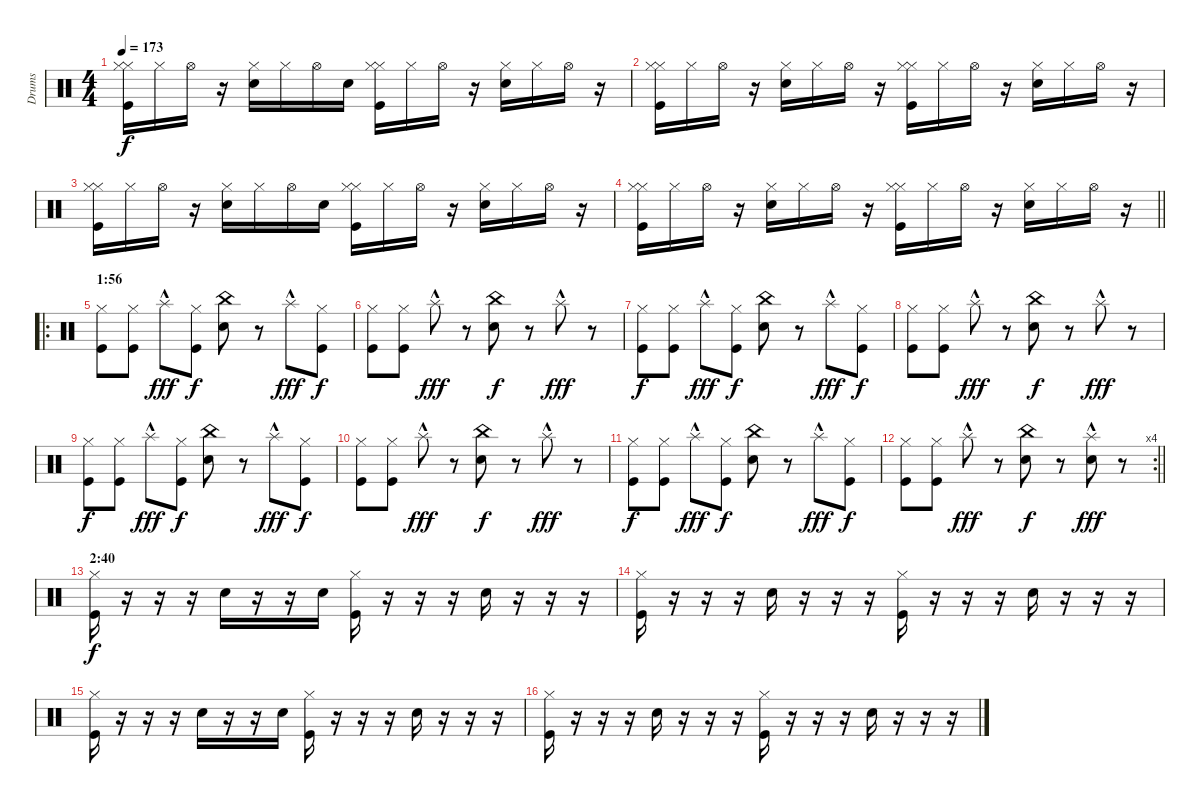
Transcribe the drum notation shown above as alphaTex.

\track ("Drums" "Drums") {instrument percussion}
\staff {score}
\articulation defaults
\ts (4 4)
\tempo 173
\clef neutral
\ks c
("Hi-Hat (closed)" "Hi-Hat (closed)" "Kick (hit)").16{dy f} "Hi-Hat (closed)".16 "Hi-Hat (open)".16 r.16 ("Hi-Hat (closed)" "Snare (hit) 2").16 "Hi-Hat (closed)".16 "Hi-Hat (open)".16 "Snare (hit) 2".16 ("Hi-Hat (closed)" "Hi-Hat (closed)" "Kick (hit)").16 "Hi-Hat (closed)".16 "Hi-Hat (open)".16 r.16 ("Hi-Hat (closed)" "Snare (hit) 2").16 "Hi-Hat (closed)".16 "Hi-Hat (open)".16 r.16 |
("Hi-Hat (closed)" "Hi-Hat (closed)" "Kick (hit)").16 "Hi-Hat (closed)".16 "Hi-Hat (open)".16 r.16 ("Hi-Hat (closed)" "Snare (hit) 2").16 "Hi-Hat (closed)".16 "Hi-Hat (open)".16 r.16 ("Hi-Hat (closed)" "Hi-Hat (closed)" "Kick (hit)").16 "Hi-Hat (closed)".16 "Hi-Hat (open)".16 r.16 ("Hi-Hat (closed)" "Snare (hit) 2").16 "Hi-Hat (closed)".16 "Hi-Hat (open)".16 r.16 |
("Hi-Hat (closed)" "Hi-Hat (closed)" "Kick (hit)").16 "Hi-Hat (closed)".16 "Hi-Hat (open)".16 r.16 ("Hi-Hat (closed)" "Snare (hit) 2").16 "Hi-Hat (closed)".16 "Hi-Hat (open)".16 "Snare (hit) 2".16 ("Hi-Hat (closed)" "Hi-Hat (closed)" "Kick (hit)").16 "Hi-Hat (closed)".16 "Hi-Hat (open)".16 r.16 ("Hi-Hat (closed)" "Snare (hit) 2").16 "Hi-Hat (closed)".16 "Hi-Hat (open)".16 r.16 |
\barLineRight lightlight
("Hi-Hat (closed)" "Hi-Hat (closed)" "Kick (hit)").16 "Hi-Hat (closed)".16 "Hi-Hat (open)".16 r.16 ("Hi-Hat (closed)" "Snare (hit) 2").16 "Hi-Hat (closed)".16 "Hi-Hat (open)".16 r.16 ("Hi-Hat (closed)" "Hi-Hat (closed)" "Kick (hit)").16 "Hi-Hat (closed)".16 "Hi-Hat (open)".16 r.16 ("Hi-Hat (closed)" "Snare (hit) 2").16 "Hi-Hat (closed)".16 "Hi-Hat (open)".16 r.16 |
\ro
\section ("" "1:56")
("Hi-Hat (closed)" "Kick (hit)").8 ("Hi-Hat (closed)" "Kick (hit)").8 "Splash (hit)"{hac}.8{dy fff} ("Hi-Hat (closed)" "Kick (hit)").8{dy f} ("China (hit)" "Snare (hit) 2").8 r.8 "Splash (hit)"{hac}.8{dy fff} ("Hi-Hat (closed)" "Kick (hit)").8{dy f} |
("Hi-Hat (closed)" "Kick (hit)").8 ("Hi-Hat (closed)" "Kick (hit)").8 "Splash (hit)"{hac}.8{dy fff} r.8 ("China (hit)" "Snare (hit) 2").8{dy f} r.8 "Splash (hit)"{hac}.8{dy fff} r.8 |
("Hi-Hat (closed)" "Kick (hit)").8{dy f} ("Hi-Hat (closed)" "Kick (hit)").8 "Splash (hit)"{hac}.8{dy fff} ("Hi-Hat (closed)" "Kick (hit)").8{dy f} ("China (hit)" "Snare (hit) 2").8 r.8 "Splash (hit)"{hac}.8{dy fff} ("Hi-Hat (closed)" "Kick (hit)").8{dy f} |
("Hi-Hat (closed)" "Kick (hit)").8 ("Hi-Hat (closed)" "Kick (hit)").8 "Splash (hit)"{hac}.8{dy fff} r.8 ("China (hit)" "Snare (hit) 2").8{dy f} r.8 "Splash (hit)"{hac}.8{dy fff} r.8 |
("Hi-Hat (closed)" "Kick (hit)").8{dy f} ("Hi-Hat (closed)" "Kick (hit)").8 "Splash (hit)"{hac}.8{dy fff} ("Hi-Hat (closed)" "Kick (hit)").8{dy f} ("China (hit)" "Snare (hit) 2").8 r.8 "Splash (hit)"{hac}.8{dy fff} ("Hi-Hat (closed)" "Kick (hit)").8{dy f} |
("Hi-Hat (closed)" "Kick (hit)").8 ("Hi-Hat (closed)" "Kick (hit)").8 "Splash (hit)"{hac}.8{dy fff} r.8 ("China (hit)" "Snare (hit) 2").8{dy f} r.8 "Splash (hit)"{hac}.8{dy fff} r.8 |
("Hi-Hat (closed)" "Kick (hit)").8{dy f} ("Hi-Hat (closed)" "Kick (hit)").8 "Splash (hit)"{hac}.8{dy fff} ("Hi-Hat (closed)" "Kick (hit)").8{dy f} ("China (hit)" "Snare (hit) 2").8 r.8 "Splash (hit)"{hac}.8{dy fff} ("Hi-Hat (closed)" "Kick (hit)").8{dy f} |
\rc 4
\barLineRight lightlight
("Hi-Hat (closed)" "Kick (hit)").8 ("Hi-Hat (closed)" "Kick (hit)").8 "Splash (hit)"{hac}.8{dy fff} r.8 ("China (hit)" "Snare (hit) 2").8{dy f} r.8 ("Splash (hit)"{hac} "Snare (hit) 2").8{dy fff} r.8 |
\section ("" "2:40")
("Hi-Hat (closed)" "Kick (hit)").16{dy f} r.16 r.16 r.16 "Snare (hit) 2".16 r.16 r.16 "Snare (hit) 2".16 ("Hi-Hat (closed)" "Kick (hit)").16 r.16 r.16 r.16 "Snare (hit) 2".16 r.16 r.16 r.16 |
("Hi-Hat (closed)" "Kick (hit)").16 r.16 r.16 r.16 "Snare (hit) 2".16 r.16 r.16 r.16 ("Hi-Hat (closed)" "Kick (hit)").16 r.16 r.16 r.16 "Snare (hit) 2".16 r.16 r.16 r.16 |
("Hi-Hat (closed)" "Kick (hit)").16 r.16 r.16 r.16 "Snare (hit) 2".16 r.16 r.16 "Snare (hit) 2".16 ("Hi-Hat (closed)" "Kick (hit)").16 r.16 r.16 r.16 "Snare (hit) 2".16 r.16 r.16 r.16 |
("Hi-Hat (closed)" "Kick (hit)").16 r.16 r.16 r.16 "Snare (hit) 2".16 r.16 r.16 r.16 ("Hi-Hat (closed)" "Kick (hit)").16 r.16 r.16 r.16 "Snare (hit) 2".16 r.16 r.16 r.16
